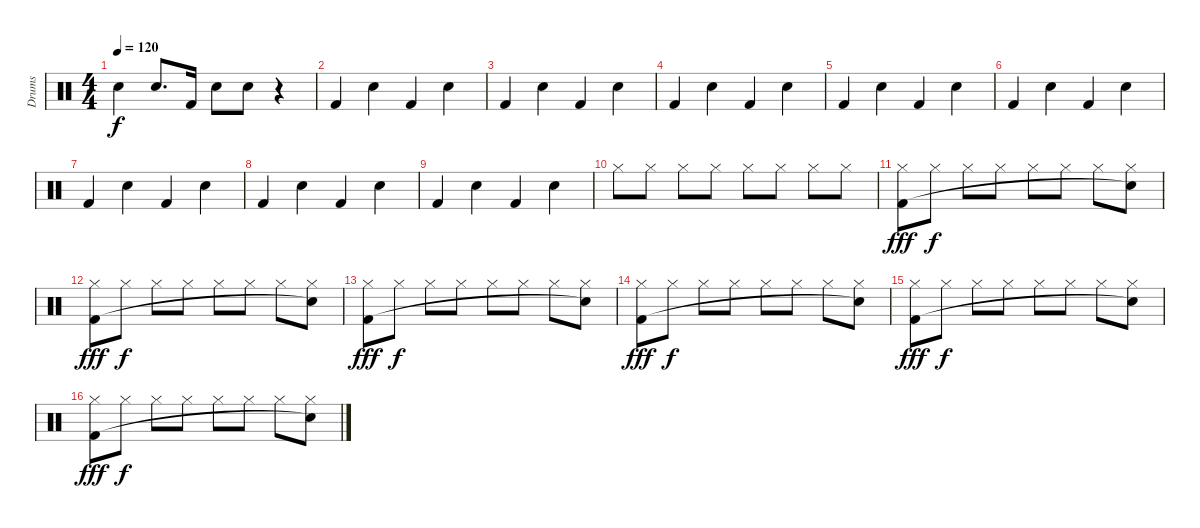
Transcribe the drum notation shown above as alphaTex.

\track ("Drums" "Drums") {instrument percussion}
\staff {score}
\articulation defaults
\ts (4 4)
\tempo 120
\clef neutral
\ks c "Snare (hit) 2".4{dy f} "Snare (hit) 2".8{d} "Kick (hit) 2".16 "Snare (hit) 2".8 "Snare (hit) 2".8
r.4 |
"Kick (hit) 2".4 "Snare (hit) 2".4 "Kick (hit) 2".4 "Snare (hit) 2".4 |
"Kick (hit) 2".4 "Snare (hit) 2".4 "Kick (hit) 2".4 "Snare (hit) 2".4 |
"Kick (hit) 2".4 "Snare (hit) 2".4 "Kick (hit) 2".4 "Snare (hit) 2".4 |
"Kick (hit) 2".4 "Snare (hit) 2".4 "Kick (hit) 2".4 "Snare (hit) 2".4 |
"Kick (hit) 2".4 "Snare (hit) 2".4 "Kick (hit) 2".4 "Snare (hit) 2".4 |
"Kick (hit) 2".4 "Snare (hit) 2".4 "Kick (hit) 2".4 "Snare (hit) 2".4 |
"Kick (hit) 2".4 "Snare (hit) 2".4 "Kick (hit) 2".4 "Snare (hit) 2".4 |
"Kick (hit) 2".4 "Snare (hit) 2".4 "Kick (hit) 2".4 "Snare (hit) 2".4 |
"Hi-Hat (closed)".8 "Hi-Hat (closed)".8 "Hi-Hat (closed)".8 "Hi-Hat (closed)".8 "Hi-Hat (closed)".8 "Hi-Hat (closed)".8 "Hi-Hat (closed)".8 "Hi-Hat (closed)".8 |
("Hi-Hat (closed)" "Kick (hit) 2").8{dy fff} "Hi-Hat (closed)".8{dy f} "Hi-Hat (closed)".8 "Hi-Hat (closed)".8 "Hi-Hat (closed)".8 "Hi-Hat (closed)".8 "Hi-Hat (closed)".8 ("Hi-Hat (closed)" "Snare (hit)"{t}).8 |
("Hi-Hat (closed)" "Kick (hit) 2").8{dy fff} "Hi-Hat (closed)".8{dy f} "Hi-Hat (closed)".8 "Hi-Hat (closed)".8 "Hi-Hat (closed)".8 "Hi-Hat (closed)".8 "Hi-Hat (closed)".8 ("Hi-Hat (closed)" "Snare (hit)"{t}).8 |
("Hi-Hat (closed)" "Kick (hit) 2").8{dy fff} "Hi-Hat (closed)".8{dy f} "Hi-Hat (closed)".8 "Hi-Hat (closed)".8 "Hi-Hat (closed)".8 "Hi-Hat (closed)".8 "Hi-Hat (closed)".8 ("Hi-Hat (closed)" "Snare (hit)"{t}).8 |
("Hi-Hat (closed)" "Kick (hit) 2").8{dy fff} "Hi-Hat (closed)".8{dy f} "Hi-Hat (closed)".8 "Hi-Hat (closed)".8 "Hi-Hat (closed)".8 "Hi-Hat (closed)".8 "Hi-Hat (closed)".8 ("Hi-Hat (closed)" "Snare (hit)"{t}).8 |
("Hi-Hat (closed)" "Kick (hit) 2").8{dy fff} "Hi-Hat (closed)".8{dy f} "Hi-Hat (closed)".8 "Hi-Hat (closed)".8 "Hi-Hat (closed)".8 "Hi-Hat (closed)".8 "Hi-Hat (closed)".8 ("Hi-Hat (closed)" "Snare (hit)"{t}).8 |
("Hi-Hat (closed)" "Kick (hit) 2").8{dy fff} "Hi-Hat (closed)".8{dy f} "Hi-Hat (closed)".8 "Hi-Hat (closed)".8 "Hi-Hat (closed)".8 "Hi-Hat (closed)".8 "Hi-Hat (closed)".8 ("Hi-Hat (closed)" "Snare (hit)"{t}).8
